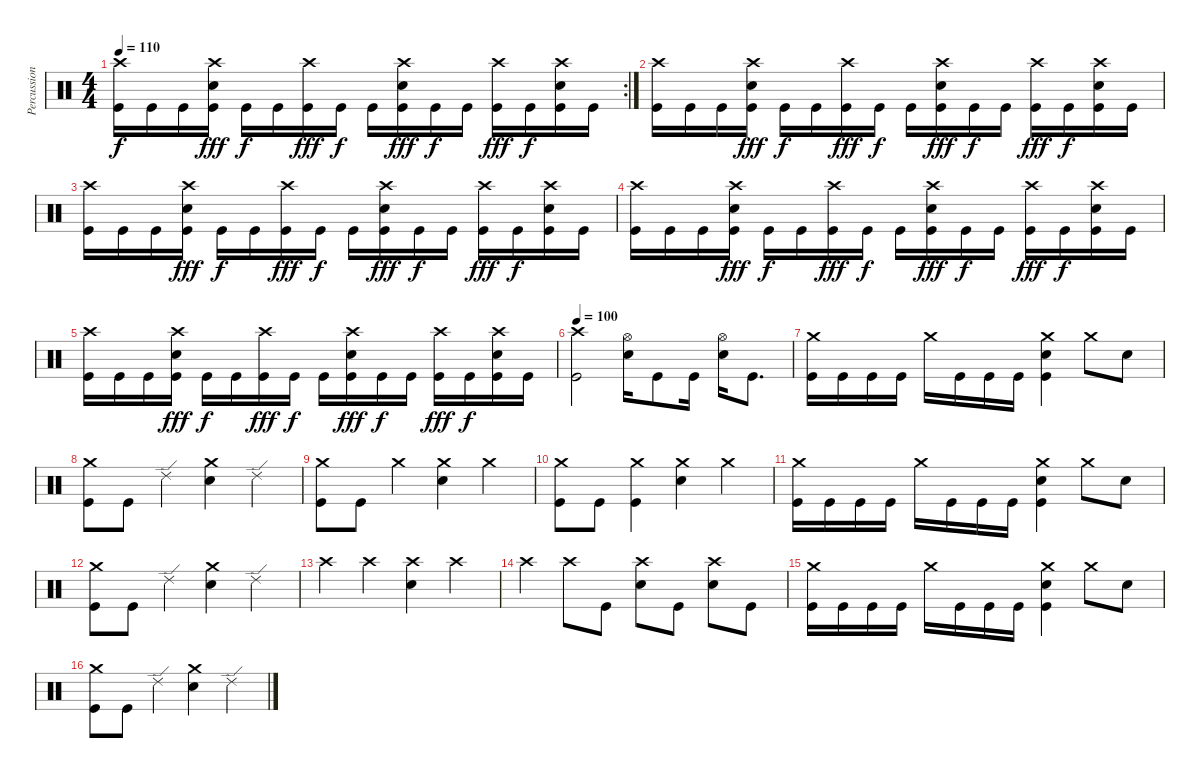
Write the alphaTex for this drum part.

\track ("Percussions" "Percussion") {instrument percussion}
\staff {score}
\articulation defaults
\rc 2
\ts (4 4)
\tempo 110
\clef neutral
\ks c
("Crash high (hit)" "Kick (hit)").16{dy f} "Kick (hit)".16 "Kick (hit)".16 ("Crash high (hit)" "Snare (hit) 2" "Kick (hit)").16{dy fff} "Kick (hit)".16{dy f} "Kick (hit)".16 ("Crash high (hit)" "Kick (hit)").16{dy fff} "Kick (hit)".16{dy f} "Kick (hit)".16 ("Crash high (hit)" "Snare (hit) 2" "Kick (hit)").16{dy fff} "Kick (hit)".16{dy f} "Kick (hit)".16 ("Crash high (hit)" "Kick (hit)").16{dy fff} "Kick (hit)".16{dy f} ("Crash high (hit)" "Snare (hit) 2" "Kick (hit)").16 "Kick (hit)".16 |
("Crash high (hit)" "Kick (hit)").16 "Kick (hit)".16 "Kick (hit)".16 ("Crash high (hit)" "Snare (hit) 2" "Kick (hit)").16{dy fff} "Kick (hit)".16{dy f} "Kick (hit)".16 ("Crash high (hit)" "Kick (hit)").16{dy fff} "Kick (hit)".16{dy f} "Kick (hit)".16 ("Crash high (hit)" "Snare (hit) 2" "Kick (hit)").16{dy fff} "Kick (hit)".16{dy f} "Kick (hit)".16 ("Crash high (hit)" "Kick (hit)").16{dy fff} "Kick (hit)".16{dy f} ("Crash high (hit)" "Snare (hit) 2" "Kick (hit)").16 "Kick (hit)".16 |
("Crash high (hit)" "Kick (hit)").16 "Kick (hit)".16 "Kick (hit)".16 ("Crash high (hit)" "Snare (hit) 2" "Kick (hit)").16{dy fff} "Kick (hit)".16{dy f} "Kick (hit)".16 ("Crash high (hit)" "Kick (hit)").16{dy fff} "Kick (hit)".16{dy f} "Kick (hit)".16 ("Crash high (hit)" "Snare (hit) 2" "Kick (hit)").16{dy fff} "Kick (hit)".16{dy f} "Kick (hit)".16 ("Crash high (hit)" "Kick (hit)").16{dy fff} "Kick (hit)".16{dy f} ("Crash high (hit)" "Snare (hit) 2" "Kick (hit)").16 "Kick (hit)".16 |
("Crash high (hit)" "Kick (hit)").16 "Kick (hit)".16 "Kick (hit)".16 ("Crash high (hit)" "Snare (hit) 2" "Kick (hit)").16{dy fff} "Kick (hit)".16{dy f} "Kick (hit)".16 ("Crash high (hit)" "Kick (hit)").16{dy fff} "Kick (hit)".16{dy f} "Kick (hit)".16 ("Crash high (hit)" "Snare (hit) 2" "Kick (hit)").16{dy fff} "Kick (hit)".16{dy f} "Kick (hit)".16 ("Crash high (hit)" "Kick (hit)").16{dy fff} "Kick (hit)".16{dy f} ("Crash high (hit)" "Snare (hit) 2" "Kick (hit)").16 "Kick (hit)".16 |
("Crash high (hit)" "Kick (hit)").16 "Kick (hit)".16 "Kick (hit)".16 ("Crash high (hit)" "Snare (hit) 2" "Kick (hit)").16{dy fff} "Kick (hit)".16{dy f} "Kick (hit)".16 ("Crash high (hit)" "Kick (hit)").16{dy fff} "Kick (hit)".16{dy f} "Kick (hit)".16 ("Crash high (hit)" "Snare (hit) 2" "Kick (hit)").16{dy fff} "Kick (hit)".16{dy f} "Kick (hit)".16 ("Crash high (hit)" "Kick (hit)").16{dy fff} "Kick (hit)".16{dy f} ("Crash high (hit)" "Snare (hit) 2" "Kick (hit)").16 "Kick (hit)".16 |
\tempo 100
("Crash high (hit)" "Kick (hit)").2 ("Hi-Hat (open)" "Snare (hit) 2").16 "Kick (hit)".8 "Kick (hit)".16 ("Hi-Hat (open)" "Snare (hit) 2").16 "Kick (hit)".8{d} |
("Crash medium (hit)" "Kick (hit)").16 "Kick (hit)".16 "Kick (hit)".16 "Kick (hit)".16 "Crash medium (hit)".16 "Kick (hit)".16 "Kick (hit)".16 "Kick (hit)".16 ("Crash medium (hit)" "Snare (hit) 2" "Kick (hit)").4 "Crash medium (hit)".8 "Snare (hit) 2".8 |
("Crash medium (hit)" "Kick (hit)").8 "Kick (hit)".8 "Ride (edge) 2".4 ("Crash medium (hit)" "Snare (hit) 2").4 "Ride (edge) 2".4 |
("Crash medium (hit)" "Kick (hit)").8 "Kick (hit)".8 "Crash medium (hit)".4 ("Crash medium (hit)" "Snare (hit) 2").4 "Crash medium (hit)".4 |
("Crash medium (hit)" "Kick (hit)").8 "Kick (hit)".8 ("Crash medium (hit)" "Kick (hit)").4 ("Crash medium (hit)" "Snare (hit) 2").4 "Crash medium (hit)".4 |
("Crash medium (hit)" "Kick (hit)").16 "Kick (hit)".16 "Kick (hit)".16 "Kick (hit)".16 "Crash medium (hit)".16 "Kick (hit)".16 "Kick (hit)".16 "Kick (hit)".16 ("Crash medium (hit)" "Snare (hit) 2" "Kick (hit)").4 "Crash medium (hit)".8 "Snare (hit) 2".8 |
("Crash medium (hit)" "Kick (hit)").8 "Kick (hit)".8 "Ride (edge) 2".4 ("Crash medium (hit)" "Snare (hit) 2").4 "Ride (edge) 2".4 |
"Crash high (hit)".4 "Crash high (hit)".4 ("Crash high (hit)" "Snare (hit) 2").4 "Crash high (hit)".4 |
"Crash high (hit)".4 "Crash high (hit)".8 "Kick (hit)".8 ("Crash high (hit)" "Snare (hit) 2").8 "Kick (hit)".8 ("Crash high (hit)" "Snare (hit) 2").8 "Kick (hit)".8 |
("Crash medium (hit)" "Kick (hit)").16 "Kick (hit)".16 "Kick (hit)".16 "Kick (hit)".16 "Crash medium (hit)".16 "Kick (hit)".16 "Kick (hit)".16 "Kick (hit)".16 ("Crash medium (hit)" "Snare (hit) 2" "Kick (hit)").4 "Crash medium (hit)".8 "Snare (hit) 2".8 |
("Crash medium (hit)" "Kick (hit)").8 "Kick (hit)".8 "Ride (edge) 2".4 ("Crash medium (hit)" "Snare (hit) 2").4 "Ride (edge) 2".4
